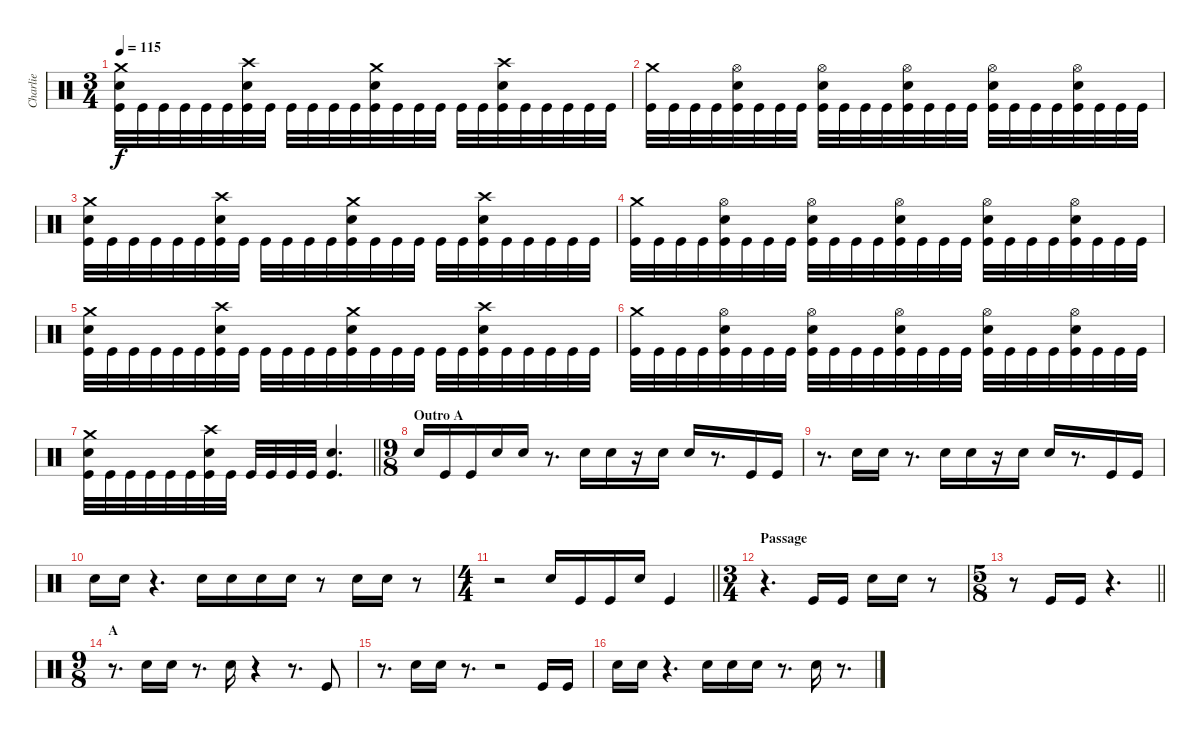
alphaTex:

\track ("Charlie" "Charlie") {instrument percussion}
\staff {score}
\articulation defaults
\ts (3 4)
\tempo 115
\clef neutral
\ks c
("Kick (hit)" "Snare (hit) 2" "Crash medium (hit)").32{dy f} "Kick (hit)".32 "Kick (hit)".32 "Kick (hit)".32 "Kick (hit)".32 "Kick (hit)".32 ("Kick (hit)" "Snare (hit) 2" "Crash high (hit)").32 "Kick (hit)".32 "Kick (hit)".32 "Kick (hit)".32 "Kick (hit)".32 "Kick (hit)".32 ("Kick (hit)" "Snare (hit) 2" "Crash medium (hit)").32 "Kick (hit)".32 "Kick (hit)".32 "Kick (hit)".32 "Kick (hit)".32 "Kick (hit)".32 ("Kick (hit)" "Snare (hit) 2" "Crash high (hit)").32 "Kick (hit)".32 "Kick (hit)".32 "Kick (hit)".32 "Kick (hit)".32 "Kick (hit)".32 |
("Kick (hit)" "Crash medium (hit)").32 "Kick (hit)".32 "Kick (hit)".32 "Kick (hit)".32 ("Kick (hit)" "Snare (hit) 2" "Hi-Hat (open)").32 "Kick (hit)".32 "Kick (hit)".32 "Kick (hit)".32 ("Kick (hit)" "Snare (hit) 2" "Hi-Hat (open)").32 "Kick (hit)".32 "Kick (hit)".32 "Kick (hit)".32 ("Kick (hit)" "Snare (hit) 2" "Hi-Hat (open)").32 "Kick (hit)".32 "Kick (hit)".32 "Kick (hit)".32 ("Kick (hit)" "Snare (hit) 2" "Hi-Hat (open)").32 "Kick (hit)".32 "Kick (hit)".32 "Kick (hit)".32 ("Kick (hit)" "Snare (hit) 2" "Hi-Hat (open)").32 "Kick (hit)".32 "Kick (hit)".32 "Kick (hit)".32 |
("Kick (hit)" "Snare (hit) 2" "Crash medium (hit)").32 "Kick (hit)".32 "Kick (hit)".32 "Kick (hit)".32 "Kick (hit)".32 "Kick (hit)".32 ("Kick (hit)" "Snare (hit) 2" "Crash high (hit)").32 "Kick (hit)".32 "Kick (hit)".32 "Kick (hit)".32 "Kick (hit)".32 "Kick (hit)".32 ("Kick (hit)" "Snare (hit) 2" "Crash medium (hit)").32 "Kick (hit)".32 "Kick (hit)".32 "Kick (hit)".32 "Kick (hit)".32 "Kick (hit)".32 ("Kick (hit)" "Snare (hit) 2" "Crash high (hit)").32 "Kick (hit)".32 "Kick (hit)".32 "Kick (hit)".32 "Kick (hit)".32 "Kick (hit)".32 |
("Kick (hit)" "Crash medium (hit)").32 "Kick (hit)".32 "Kick (hit)".32 "Kick (hit)".32 ("Kick (hit)" "Snare (hit) 2" "Hi-Hat (open)").32 "Kick (hit)".32 "Kick (hit)".32 "Kick (hit)".32 ("Kick (hit)" "Snare (hit) 2" "Hi-Hat (open)").32 "Kick (hit)".32 "Kick (hit)".32 "Kick (hit)".32 ("Kick (hit)" "Snare (hit) 2" "Hi-Hat (open)").32 "Kick (hit)".32 "Kick (hit)".32 "Kick (hit)".32 ("Kick (hit)" "Snare (hit) 2" "Hi-Hat (open)").32 "Kick (hit)".32 "Kick (hit)".32 "Kick (hit)".32 ("Kick (hit)" "Snare (hit) 2" "Hi-Hat (open)").32 "Kick (hit)".32 "Kick (hit)".32 "Kick (hit)".32 |
("Kick (hit)" "Snare (hit) 2" "Crash medium (hit)").32 "Kick (hit)".32 "Kick (hit)".32 "Kick (hit)".32 "Kick (hit)".32 "Kick (hit)".32 ("Kick (hit)" "Snare (hit) 2" "Crash high (hit)").32 "Kick (hit)".32 "Kick (hit)".32 "Kick (hit)".32 "Kick (hit)".32 "Kick (hit)".32 ("Kick (hit)" "Snare (hit) 2" "Crash medium (hit)").32 "Kick (hit)".32 "Kick (hit)".32 "Kick (hit)".32 "Kick (hit)".32 "Kick (hit)".32 ("Kick (hit)" "Snare (hit) 2" "Crash high (hit)").32 "Kick (hit)".32 "Kick (hit)".32 "Kick (hit)".32 "Kick (hit)".32 "Kick (hit)".32 |
("Kick (hit)" "Crash medium (hit)").32 "Kick (hit)".32 "Kick (hit)".32 "Kick (hit)".32 ("Kick (hit)" "Snare (hit) 2" "Hi-Hat (open)").32 "Kick (hit)".32 "Kick (hit)".32 "Kick (hit)".32 ("Kick (hit)" "Snare (hit) 2" "Hi-Hat (open)").32 "Kick (hit)".32 "Kick (hit)".32 "Kick (hit)".32 ("Kick (hit)" "Snare (hit) 2" "Hi-Hat (open)").32 "Kick (hit)".32 "Kick (hit)".32 "Kick (hit)".32 ("Kick (hit)" "Snare (hit) 2" "Hi-Hat (open)").32 "Kick (hit)".32 "Kick (hit)".32 "Kick (hit)".32 ("Kick (hit)" "Snare (hit) 2" "Hi-Hat (open)").32 "Kick (hit)".32 "Kick (hit)".32 "Kick (hit)".32 |
\barLineRight lightlight
("Kick (hit)" "Snare (hit) 2" "Crash medium (hit)").32 "Kick (hit)".32 "Kick (hit)".32 "Kick (hit)".32 "Kick (hit)".32 "Kick (hit)".32 ("Kick (hit)" "Snare (hit) 2" "Crash high (hit)").32 "Kick (hit)".32 "Kick (hit)".32 "Kick (hit)".32 "Kick (hit)".32 "Kick (hit)".32 ("Kick (hit)" "Snare (hit) 2").4{d} |
\ts (9 8)
\section ("" "Outro A")
"Snare (hit) 2".16 "Kick (hit)".16 "Kick (hit)".16 "Snare (hit) 2".16 "Snare (hit) 2".16 r.8{d} "Snare (hit) 2".16 "Snare (hit) 2".16 r.16 "Snare (hit) 2".16 "Snare (hit) 2".16 r.8{d} "Kick (hit)".16 "Kick (hit)".16 |
r.8{d} "Snare (hit) 2".16 "Snare (hit) 2".16 r.8{d} "Snare (hit) 2".16 "Snare (hit) 2".16 r.16 "Snare (hit) 2".16 "Snare (hit) 2".16 r.8{d} "Kick (hit)".16 "Kick (hit)".16 |
"Snare (hit) 2".16 "Snare (hit) 2".16 r.4{d} "Snare (hit) 2".16 "Snare (hit) 2".16 "Snare (hit) 2".16 "Snare (hit) 2".16 r.8 "Snare (hit) 2".16 "Snare (hit) 2".16 r.8 |
\ts (4 4)
\barLineRight lightlight
r.2 "Snare (hit) 2".16 "Kick (hit)".16 "Kick (hit)".16 "Snare (hit) 2".16 "Kick (hit)".4 |
\ts (3 4)
\section ("" "Passage")
r.4{d} "Kick (hit)".16 "Kick (hit)".16 "Snare (hit) 2".16 "Snare (hit) 2".16 r.8 |
\ts (5 8)
\barLineRight lightlight
r.8 "Kick (hit)".16 "Kick (hit)".16 r.4{d} |
\ts (9 8)
\section ("" "A")
r.8{d} "Snare (hit) 2".16 "Snare (hit) 2".16 r.8{d} "Snare (hit) 2".16 r.4 r.8{d} "Kick (hit)".8 |
r.8{d} "Snare (hit) 2".16 "Snare (hit) 2".16 r.8{d} r.2 "Kick (hit)".16 "Kick (hit)".16 |
"Snare (hit) 2".16 "Snare (hit) 2".16 r.4{d} "Snare (hit) 2".16 "Snare (hit) 2".16 "Snare (hit) 2".16 r.8{d} "Snare (hit) 2".16 r.8{d}
